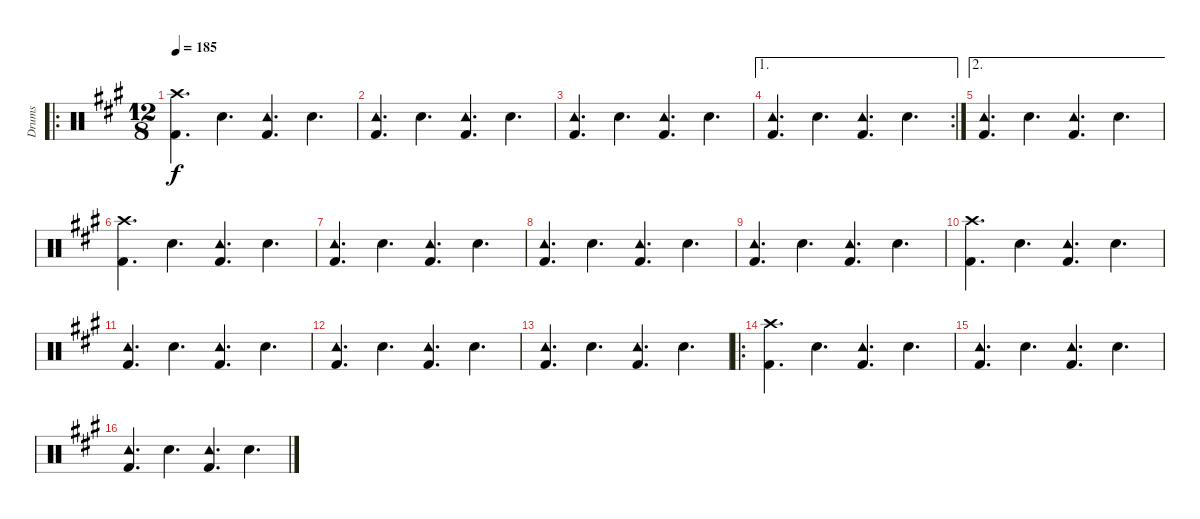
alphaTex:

\track ("Drums" "Drums") {instrument percussion}
\staff {score}
\articulation defaults
\ro
\ts (12 8)
\tempo 185
\clef neutral
\ks a
("Crash high (hit)" "Kick (hit) 2").4{d dy f} "Snare (hit) 2".4{d} ("Tambourine (hit)" "Kick (hit) 2").4{d} "Snare (hit) 2".4{d} |
("Tambourine (hit)" "Kick (hit) 2").4{d} "Snare (hit) 2".4{d} ("Tambourine (hit)" "Kick (hit) 2").4{d} "Snare (hit) 2".4{d} |
("Tambourine (hit)" "Kick (hit) 2").4{d} "Snare (hit) 2".4{d} ("Tambourine (hit)" "Kick (hit) 2").4{d} "Snare (hit) 2".4{d} |
\ae 1
\rc 2
("Tambourine (hit)" "Kick (hit) 2").4{d} "Snare (hit) 2".4{d} ("Tambourine (hit)" "Kick (hit) 2").4{d} "Snare (hit) 2".4{d} |
\ae 2
("Tambourine (hit)" "Kick (hit) 2").4{d} "Snare (hit) 2".4{d} ("Tambourine (hit)" "Kick (hit) 2").4{d} "Snare (hit) 2".4{d} |
("Crash high (hit)" "Kick (hit) 2").4{d} "Snare (hit) 2".4{d} ("Tambourine (hit)" "Kick (hit) 2").4{d} "Snare (hit) 2".4{d} |
("Tambourine (hit)" "Kick (hit) 2").4{d} "Snare (hit) 2".4{d} ("Tambourine (hit)" "Kick (hit) 2").4{d} "Snare (hit) 2".4{d} |
("Tambourine (hit)" "Kick (hit) 2").4{d} "Snare (hit) 2".4{d} ("Tambourine (hit)" "Kick (hit) 2").4{d} "Snare (hit) 2".4{d} |
("Tambourine (hit)" "Kick (hit) 2").4{d} "Snare (hit) 2".4{d} ("Tambourine (hit)" "Kick (hit) 2").4{d} "Snare (hit) 2".4{d} |
("Crash high (hit)" "Kick (hit) 2").4{d} "Snare (hit) 2".4{d} ("Tambourine (hit)" "Kick (hit) 2").4{d} "Snare (hit) 2".4{d} |
("Tambourine (hit)" "Kick (hit) 2").4{d} "Snare (hit) 2".4{d} ("Tambourine (hit)" "Kick (hit) 2").4{d} "Snare (hit) 2".4{d} |
("Tambourine (hit)" "Kick (hit) 2").4{d} "Snare (hit) 2".4{d} ("Tambourine (hit)" "Kick (hit) 2").4{d} "Snare (hit) 2".4{d} |
("Tambourine (hit)" "Kick (hit) 2").4{d} "Snare (hit) 2".4{d} ("Tambourine (hit)" "Kick (hit) 2").4{d} "Snare (hit) 2".4{d} |
\ro
("Crash high (hit)" "Kick (hit) 2").4{d} "Snare (hit) 2".4{d} ("Tambourine (hit)" "Kick (hit) 2").4{d} "Snare (hit) 2".4{d} |
("Tambourine (hit)" "Kick (hit) 2").4{d} "Snare (hit) 2".4{d} ("Tambourine (hit)" "Kick (hit) 2").4{d} "Snare (hit) 2".4{d} |
("Tambourine (hit)" "Kick (hit) 2").4{d} "Snare (hit) 2".4{d} ("Tambourine (hit)" "Kick (hit) 2").4{d} "Snare (hit) 2".4{d}
